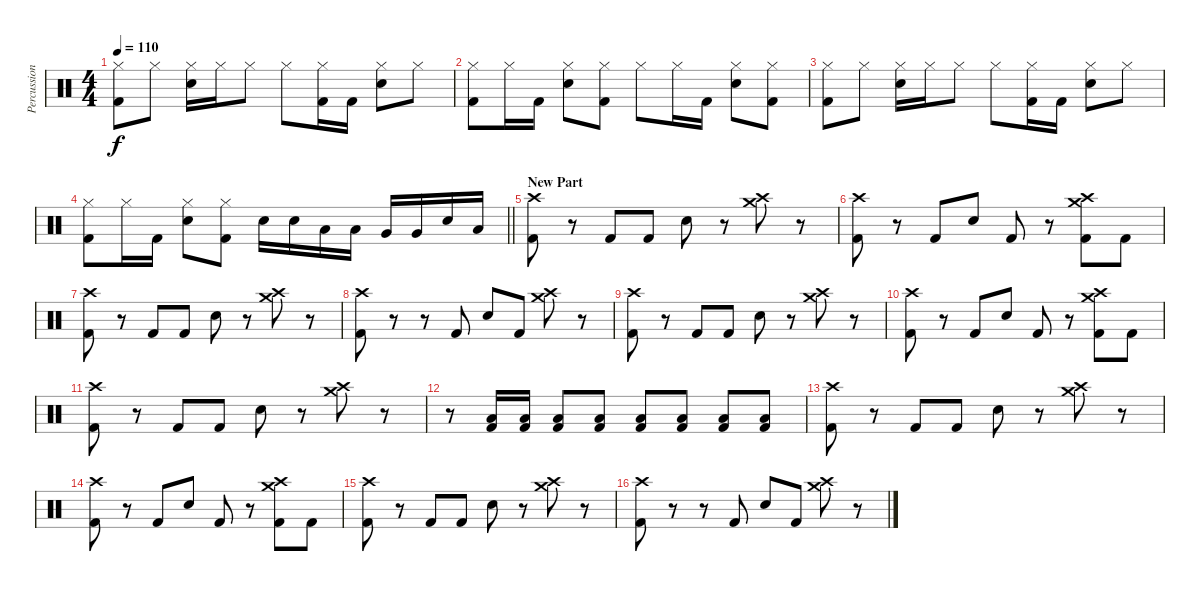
\track ("Percussion" "Percussion") {instrument percussion}
\staff {score}
\articulation defaults
\ts (4 4)
\tempo 110
\clef neutral
\ks c
("Kick (hit) 2" "Hi-Hat (closed)").8{dy f} "Hi-Hat (closed)".8 ("Electric Snare (hit)" "Hi-Hat (closed)").16 "Hi-Hat (closed)".16 "Hi-Hat (closed)".8 "Hi-Hat (closed)".8 ("Kick (hit) 2" "Hi-Hat (closed)").16 "Kick (hit) 2".16 ("Electric Snare (hit)" "Hi-Hat (closed)").8 "Hi-Hat (closed)".8 |
("Kick (hit) 2" "Hi-Hat (closed)").8 "Hi-Hat (closed)".16 "Kick (hit) 2".16 ("Electric Snare (hit)" "Hi-Hat (closed)").8 ("Kick (hit) 2" "Hi-Hat (closed)").8 "Hi-Hat (closed)".8 "Hi-Hat (closed)".16 "Kick (hit) 2".16 ("Electric Snare (hit)" "Hi-Hat (closed)").8 ("Kick (hit) 2" "Hi-Hat (closed)").8 |
("Kick (hit) 2" "Hi-Hat (closed)").8 "Hi-Hat (closed)".8 ("Electric Snare (hit)" "Hi-Hat (closed)").16 "Hi-Hat (closed)".16 "Hi-Hat (closed)".8 "Hi-Hat (closed)".8 ("Kick (hit) 2" "Hi-Hat (closed)").16 "Kick (hit) 2".16 ("Electric Snare (hit)" "Hi-Hat (closed)").8 "Hi-Hat (closed)".8 |
\barLineRight lightlight
("Kick (hit) 2" "Hi-Hat (closed)").8 "Hi-Hat (closed)".16 "Kick (hit) 2".16 ("Electric Snare (hit)" "Hi-Hat (closed)").8 ("Kick (hit) 2" "Hi-Hat (closed)").8 "Electric Snare (hit)".16 "Electric Snare (hit)".16 "Low Tom (hit)".16 "Low Tom (hit)".16 "Very Low Tom (hit)".16 "Very Low Tom (hit)".16 "Electric Snare (hit)".16 "Low Floor Tom (hit)".16 |
\section ("" "New Part")
("Kick (hit) 2" "Crash high (hit)").8 r.8 "Kick (hit) 2".8 "Kick (hit) 2".8 "Electric Snare (hit)".8 r.8 ("Crash medium (hit)" "Crash high (hit)").8 r.8 |
("Kick (hit) 2" "Crash high (hit)").8 r.8 "Kick (hit) 2".8 "Electric Snare (hit)".8 "Kick (hit) 2".8 r.8 ("Kick (hit) 2" "Crash medium (hit)" "Crash high (hit)").8 "Kick (hit) 2".8 |
("Kick (hit) 2" "Crash high (hit)").8 r.8 "Kick (hit) 2".8 "Kick (hit) 2".8 "Electric Snare (hit)".8 r.8 ("Crash medium (hit)" "Crash high (hit)").8 r.8 |
("Kick (hit) 2" "Crash high (hit)").8 r.8 r.8 "Kick (hit) 2".8 "Electric Snare (hit)".8 "Kick (hit) 2".8 ("Crash medium (hit)" "Crash high (hit)").8 r.8 |
("Kick (hit) 2" "Crash high (hit)").8 r.8 "Kick (hit) 2".8 "Kick (hit) 2".8 "Electric Snare (hit)".8 r.8 ("Crash medium (hit)" "Crash high (hit)").8 r.8 |
("Kick (hit) 2" "Crash high (hit)").8 r.8 "Kick (hit) 2".8 "Electric Snare (hit)".8 "Kick (hit) 2".8 r.8 ("Kick (hit) 2" "Crash medium (hit)" "Crash high (hit)").8 "Kick (hit) 2".8 |
("Kick (hit) 2" "Crash high (hit)").8 r.8 "Kick (hit) 2".8 "Kick (hit) 2".8 "Electric Snare (hit)".8 r.8 ("Crash medium (hit)" "Crash high (hit)").8 r.8 |
r.8 ("Kick (hit) 2" "Low Floor Tom (hit)").16 ("Kick (hit) 2" "Low Floor Tom (hit)").16 ("Kick (hit) 2" "Low Floor Tom (hit)").8 ("Kick (hit) 2" "Low Floor Tom (hit)").8 ("Kick (hit) 2" "Low Floor Tom (hit)").8 ("Kick (hit) 2" "Low Floor Tom (hit)").8 ("Kick (hit) 2" "Low Floor Tom (hit)").8 ("Kick (hit) 2" "Low Floor Tom (hit)").8 |
("Kick (hit) 2" "Crash high (hit)").8 r.8 "Kick (hit) 2".8 "Kick (hit) 2".8 "Electric Snare (hit)".8 r.8 ("Crash medium (hit)" "Crash high (hit)").8 r.8 |
("Kick (hit) 2" "Crash high (hit)").8 r.8 "Kick (hit) 2".8 "Electric Snare (hit)".8 "Kick (hit) 2".8 r.8 ("Kick (hit) 2" "Crash medium (hit)" "Crash high (hit)").8 "Kick (hit) 2".8 |
("Kick (hit) 2" "Crash high (hit)").8 r.8 "Kick (hit) 2".8 "Kick (hit) 2".8 "Electric Snare (hit)".8 r.8 ("Crash medium (hit)" "Crash high (hit)").8 r.8 |
("Kick (hit) 2" "Crash high (hit)").8 r.8 r.8 "Kick (hit) 2".8 "Electric Snare (hit)".8 "Kick (hit) 2".8 ("Crash medium (hit)" "Crash high (hit)").8 r.8
